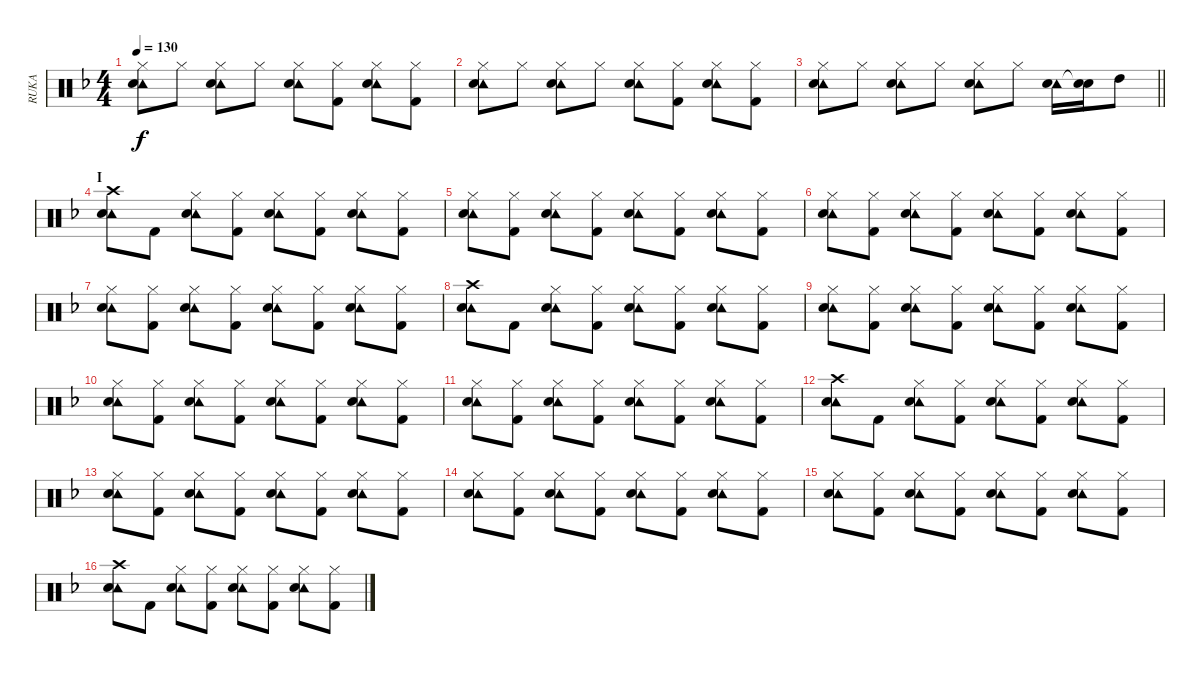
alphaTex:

\track ("RUKA" "RUKA") {instrument percussion}
\staff {score}
\articulation defaults
\ts (4 4)
\tempo 130
\clef neutral
\ks f
("Hi-Hat (closed)" "Tambourine (hit)" "Snare (hit) 2").8{dy f} "Hi-Hat (closed)".8 ("Hi-Hat (closed)" "Tambourine (hit)" "Snare (hit) 2").8 "Hi-Hat (closed)".8 ("Hi-Hat (closed)" "Tambourine (hit)" "Snare (hit) 2").8 ("Hi-Hat (closed)" "Kick (hit) 2").8 ("Hi-Hat (closed)" "Tambourine (hit)" "Snare (hit) 2").8 ("Hi-Hat (closed)" "Kick (hit) 2").8 |
("Hi-Hat (closed)" "Tambourine (hit)" "Snare (hit) 2").8 "Hi-Hat (closed)".8 ("Hi-Hat (closed)" "Tambourine (hit)" "Snare (hit) 2").8 "Hi-Hat (closed)".8 ("Hi-Hat (closed)" "Tambourine (hit)" "Snare (hit) 2").8 ("Hi-Hat (closed)" "Kick (hit) 2").8 ("Hi-Hat (closed)" "Tambourine (hit)" "Snare (hit) 2").8 ("Hi-Hat (closed)" "Kick (hit) 2").8 |
\barLineRight lightlight
("Hi-Hat (closed)" "Tambourine (hit)" "Snare (hit) 2").8 "Hi-Hat (closed)".8 ("Hi-Hat (closed)" "Tambourine (hit)" "Snare (hit) 2").8 "Hi-Hat (closed)".8 ("Hi-Hat (closed)" "Tambourine (hit)" "Snare (hit) 2").8 "Hi-Hat (closed)".8 ("Tambourine (hit)" "Snare (hit) 2").16 ("Snare (hit)"{t} "Snare (hit) 2").16 "High Tom (hit)".8 |
\section ("" "I")
("Crash high (hit)" "Tambourine (hit)" "Snare (hit) 2").8 "Kick (hit) 2".8 ("Hi-Hat (closed)" "Tambourine (hit)" "Snare (hit) 2").8 ("Hi-Hat (closed)" "Kick (hit) 2").8 ("Hi-Hat (closed)" "Tambourine (hit)" "Snare (hit) 2").8 ("Hi-Hat (closed)" "Kick (hit) 2").8 ("Hi-Hat (closed)" "Tambourine (hit)" "Snare (hit) 2").8 ("Hi-Hat (closed)" "Kick (hit) 2").8 |
("Hi-Hat (closed)" "Tambourine (hit)" "Snare (hit) 2").8 ("Hi-Hat (closed)" "Kick (hit) 2").8 ("Hi-Hat (closed)" "Tambourine (hit)" "Snare (hit) 2").8 ("Hi-Hat (closed)" "Kick (hit) 2").8 ("Hi-Hat (closed)" "Tambourine (hit)" "Snare (hit) 2").8 ("Hi-Hat (closed)" "Kick (hit) 2").8 ("Hi-Hat (closed)" "Tambourine (hit)" "Snare (hit) 2").8 ("Hi-Hat (closed)" "Kick (hit) 2").8 |
("Hi-Hat (closed)" "Tambourine (hit)" "Snare (hit) 2").8 ("Hi-Hat (closed)" "Kick (hit) 2").8 ("Hi-Hat (closed)" "Tambourine (hit)" "Snare (hit) 2").8 ("Hi-Hat (closed)" "Kick (hit) 2").8 ("Hi-Hat (closed)" "Tambourine (hit)" "Snare (hit) 2").8 ("Hi-Hat (closed)" "Kick (hit) 2").8 ("Hi-Hat (closed)" "Tambourine (hit)" "Snare (hit) 2").8 ("Hi-Hat (closed)" "Kick (hit) 2").8 |
("Hi-Hat (closed)" "Tambourine (hit)" "Snare (hit) 2").8 ("Hi-Hat (closed)" "Kick (hit) 2").8 ("Hi-Hat (closed)" "Tambourine (hit)" "Snare (hit) 2").8 ("Hi-Hat (closed)" "Kick (hit) 2").8 ("Hi-Hat (closed)" "Tambourine (hit)" "Snare (hit) 2").8 ("Hi-Hat (closed)" "Kick (hit) 2").8 ("Hi-Hat (closed)" "Tambourine (hit)" "Snare (hit) 2").8 ("Hi-Hat (closed)" "Kick (hit) 2").8 |
("Crash high (hit)" "Tambourine (hit)" "Snare (hit) 2").8 "Kick (hit) 2".8 ("Hi-Hat (closed)" "Tambourine (hit)" "Snare (hit) 2").8 ("Hi-Hat (closed)" "Kick (hit) 2").8 ("Hi-Hat (closed)" "Tambourine (hit)" "Snare (hit) 2").8 ("Hi-Hat (closed)" "Kick (hit) 2").8 ("Hi-Hat (closed)" "Tambourine (hit)" "Snare (hit) 2").8 ("Hi-Hat (closed)" "Kick (hit) 2").8 |
("Hi-Hat (closed)" "Tambourine (hit)" "Snare (hit) 2").8 ("Hi-Hat (closed)" "Kick (hit) 2").8 ("Hi-Hat (closed)" "Tambourine (hit)" "Snare (hit) 2").8 ("Hi-Hat (closed)" "Kick (hit) 2").8 ("Hi-Hat (closed)" "Tambourine (hit)" "Snare (hit) 2").8 ("Hi-Hat (closed)" "Kick (hit) 2").8 ("Hi-Hat (closed)" "Tambourine (hit)" "Snare (hit) 2").8 ("Hi-Hat (closed)" "Kick (hit) 2").8 |
("Hi-Hat (closed)" "Tambourine (hit)" "Snare (hit) 2").8 ("Hi-Hat (closed)" "Kick (hit) 2").8 ("Hi-Hat (closed)" "Tambourine (hit)" "Snare (hit) 2").8 ("Hi-Hat (closed)" "Kick (hit) 2").8 ("Hi-Hat (closed)" "Tambourine (hit)" "Snare (hit) 2").8 ("Hi-Hat (closed)" "Kick (hit) 2").8 ("Hi-Hat (closed)" "Tambourine (hit)" "Snare (hit) 2").8 ("Hi-Hat (closed)" "Kick (hit) 2").8 |
("Hi-Hat (closed)" "Tambourine (hit)" "Snare (hit) 2").8 ("Hi-Hat (closed)" "Kick (hit) 2").8 ("Hi-Hat (closed)" "Tambourine (hit)" "Snare (hit) 2").8 ("Hi-Hat (closed)" "Kick (hit) 2").8 ("Hi-Hat (closed)" "Tambourine (hit)" "Snare (hit) 2").8 ("Hi-Hat (closed)" "Kick (hit) 2").8 ("Hi-Hat (closed)" "Tambourine (hit)" "Snare (hit) 2").8 ("Hi-Hat (closed)" "Kick (hit) 2").8 |
("Crash high (hit)" "Tambourine (hit)" "Snare (hit) 2").8 "Kick (hit) 2".8 ("Hi-Hat (closed)" "Tambourine (hit)" "Snare (hit) 2").8 ("Hi-Hat (closed)" "Kick (hit) 2").8 ("Hi-Hat (closed)" "Tambourine (hit)" "Snare (hit) 2").8 ("Hi-Hat (closed)" "Kick (hit) 2").8 ("Hi-Hat (closed)" "Tambourine (hit)" "Snare (hit) 2").8 ("Hi-Hat (closed)" "Kick (hit) 2").8 |
("Hi-Hat (closed)" "Tambourine (hit)" "Snare (hit) 2").8 ("Hi-Hat (closed)" "Kick (hit) 2").8 ("Hi-Hat (closed)" "Tambourine (hit)" "Snare (hit) 2").8 ("Hi-Hat (closed)" "Kick (hit) 2").8 ("Hi-Hat (closed)" "Tambourine (hit)" "Snare (hit) 2").8 ("Hi-Hat (closed)" "Kick (hit) 2").8 ("Hi-Hat (closed)" "Tambourine (hit)" "Snare (hit) 2").8 ("Hi-Hat (closed)" "Kick (hit) 2").8 |
("Hi-Hat (closed)" "Tambourine (hit)" "Snare (hit) 2").8 ("Hi-Hat (closed)" "Kick (hit) 2").8 ("Hi-Hat (closed)" "Tambourine (hit)" "Snare (hit) 2").8 ("Hi-Hat (closed)" "Kick (hit) 2").8 ("Hi-Hat (closed)" "Tambourine (hit)" "Snare (hit) 2").8 ("Hi-Hat (closed)" "Kick (hit) 2").8 ("Hi-Hat (closed)" "Tambourine (hit)" "Snare (hit) 2").8 ("Hi-Hat (closed)" "Kick (hit) 2").8 |
("Hi-Hat (closed)" "Tambourine (hit)" "Snare (hit) 2").8 ("Hi-Hat (closed)" "Kick (hit) 2").8 ("Hi-Hat (closed)" "Tambourine (hit)" "Snare (hit) 2").8 ("Hi-Hat (closed)" "Kick (hit) 2").8 ("Hi-Hat (closed)" "Tambourine (hit)" "Snare (hit) 2").8 ("Hi-Hat (closed)" "Kick (hit) 2").8 ("Hi-Hat (closed)" "Tambourine (hit)" "Snare (hit) 2").8 ("Hi-Hat (closed)" "Kick (hit) 2").8 |
("Crash high (hit)" "Tambourine (hit)" "Snare (hit) 2").8 "Kick (hit) 2".8 ("Hi-Hat (closed)" "Tambourine (hit)" "Snare (hit) 2").8 ("Hi-Hat (closed)" "Kick (hit) 2").8 ("Hi-Hat (closed)" "Tambourine (hit)" "Snare (hit) 2").8 ("Hi-Hat (closed)" "Kick (hit) 2").8 ("Hi-Hat (closed)" "Tambourine (hit)" "Snare (hit) 2").8 ("Hi-Hat (closed)" "Kick (hit) 2").8
